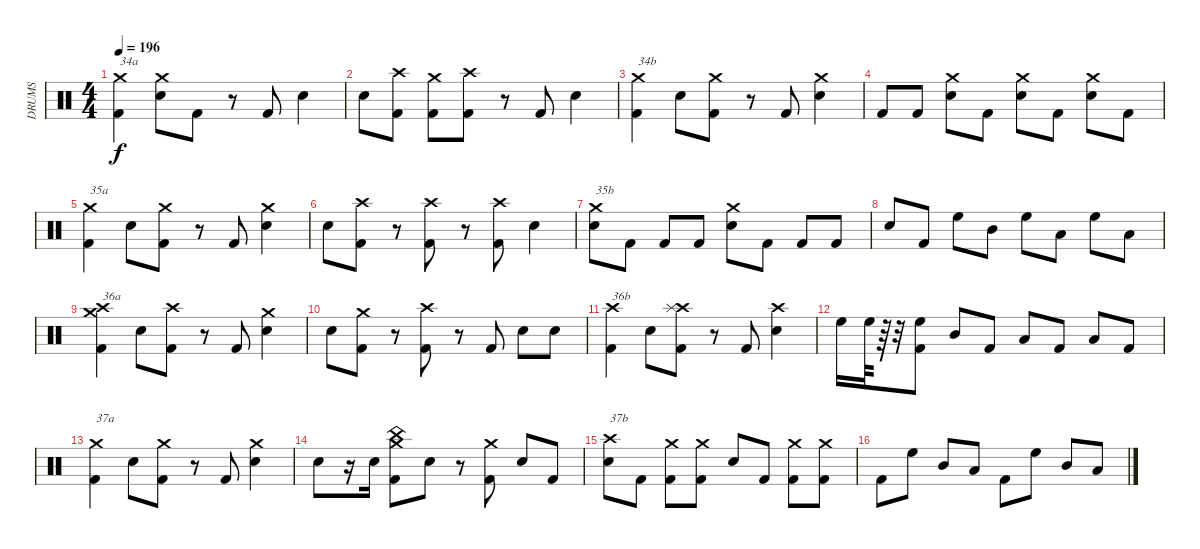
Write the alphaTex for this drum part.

\track ("DRUMS" "DRUMS") {instrument percussion}
\staff {score}
\articulation defaults
\ts (4 4)
\tempo 196
\clef neutral
\ks c
("Crash medium (hit)" "Kick (hit) 2").4{txt "34a" dy f} ("Crash medium (hit)" "Snare (hit) 2").8 "Kick (hit) 2".8 r.8 "Kick (hit) 2".8 "Snare (hit) 2".4 |
"Snare (hit) 2".8 ("Crash high (hit)" "Kick (hit) 2").8 ("Crash medium (hit)" "Kick (hit) 2").8 ("Crash high (hit)" "Kick (hit) 2").8 r.8 "Kick (hit) 2".8 "Snare (hit) 2".4 |
("Crash medium (hit)" "Kick (hit) 2").4{txt "34b"} "Snare (hit) 2".8 ("Crash medium (hit)" "Kick (hit) 2").8 r.8 "Kick (hit) 2".8 ("Crash medium (hit)" "Snare (hit) 2").4 |
"Kick (hit) 2".8 "Kick (hit) 2".8 ("Crash medium (hit)" "Snare (hit) 2").8 "Kick (hit) 2".8 ("Crash medium (hit)" "Snare (hit) 2").8 "Kick (hit) 2".8 ("Crash medium (hit)" "Snare (hit) 2").8 "Kick (hit) 2".8 |
("Crash medium (hit)" "Kick (hit) 2").4{txt "35a"} "Snare (hit) 2".8 ("Crash medium (hit)" "Kick (hit) 2").8 r.8 "Kick (hit) 2".8 ("Crash medium (hit)" "Snare (hit) 2").4 |
"Snare (hit) 2".8 ("Crash high (hit)" "Kick (hit) 2").8 r.8 ("Crash high (hit)" "Kick (hit) 2").8 r.8 ("Crash high (hit)" "Kick (hit) 2").8 "Snare (hit) 2".4 |
("Crash medium (hit)" "Snare (hit) 2").8{txt "35b"} "Kick (hit) 2".8 "Kick (hit) 2".8 "Kick (hit) 2".8 ("Crash medium (hit)" "Snare (hit) 2").8 "Kick (hit) 2".8 "Kick (hit) 2".8 "Kick (hit) 2".8 |
"Snare (hit) 2".8 "Kick (hit) 2".8 "High Floor Tom (hit)".8 "Mid Tom (hit)".8 "High Floor Tom (hit)".8 "Low Tom (hit)".8 "High Floor Tom (hit)".8 "Low Floor Tom (hit)".8 |
("Crash high (hit)" "Crash medium (hit)" "Kick (hit) 2").4{txt "36a"} "Snare (hit) 2".8 ("Crash high (hit)" "Kick (hit) 2").8 r.8 "Kick (hit) 2".8 ("Crash medium (hit)" "Snare (hit) 2").4 |
"Snare (hit) 2".8 ("Crash medium (hit)" "Kick (hit) 2").8 r.8 ("Crash high (hit)" "Kick (hit) 2").8 r.8 "Kick (hit) 2".8 "Snare (hit) 2".8 "Snare (hit) 2".8 |
("Crash high (hit)" "Kick (hit) 2").4{txt "36b"} "Snare (hit) 2".8 ("Crash high (hit)" "Splash (hit)" "Kick (hit) 2").8 r.8 "Kick (hit) 2".8 ("Crash high (hit)" "Snare (hit) 2").4 |
"High Floor Tom (hit)".16 "High Floor Tom (hit)".64 r.64 r.32 ("High Floor Tom (hit)" "Kick (hit) 2").8 "Mid Tom (hit)".8 "Kick (hit) 2".8 "Low Tom (hit)".8 "Kick (hit) 2".8 "Low Floor Tom (hit)".8 "Kick (hit) 2".8 |
("Crash medium (hit)" "Kick (hit) 2").4{txt "37a"} "Snare (hit) 2".8 ("Crash medium (hit)" "Kick (hit) 2").8 r.8 "Kick (hit) 2".8 ("Crash medium (hit)" "Snare (hit) 2").4 |
"Snare (hit) 2".8 r.16 "Snare (hit) 2".16 ("Crash medium (hit)" "China (hit)" "Kick (hit) 2").8 "Snare (hit) 2".8 r.8 ("Crash medium (hit)" "Kick (hit) 2").8 "Snare (hit) 2".8 "Kick (hit) 2".8 |
("Crash high (hit)" "Snare (hit) 2").8{txt "37b"} "Kick (hit) 2".8 ("Crash medium (hit)" "Kick (hit) 2").8 ("Crash medium (hit)" "Kick (hit) 2").8 "Snare (hit) 2".8 "Kick (hit) 2".8 ("Crash medium (hit)" "Kick (hit) 2").8 ("Crash medium (hit)" "Kick (hit) 2").8 |
"Kick (hit) 2".8 "High Floor Tom (hit)".8 "Mid Tom (hit)".8 "Low Tom (hit)".8 "Kick (hit) 2".8 "High Floor Tom (hit)".8 "Mid Tom (hit)".8 "Low Tom (hit)".8
